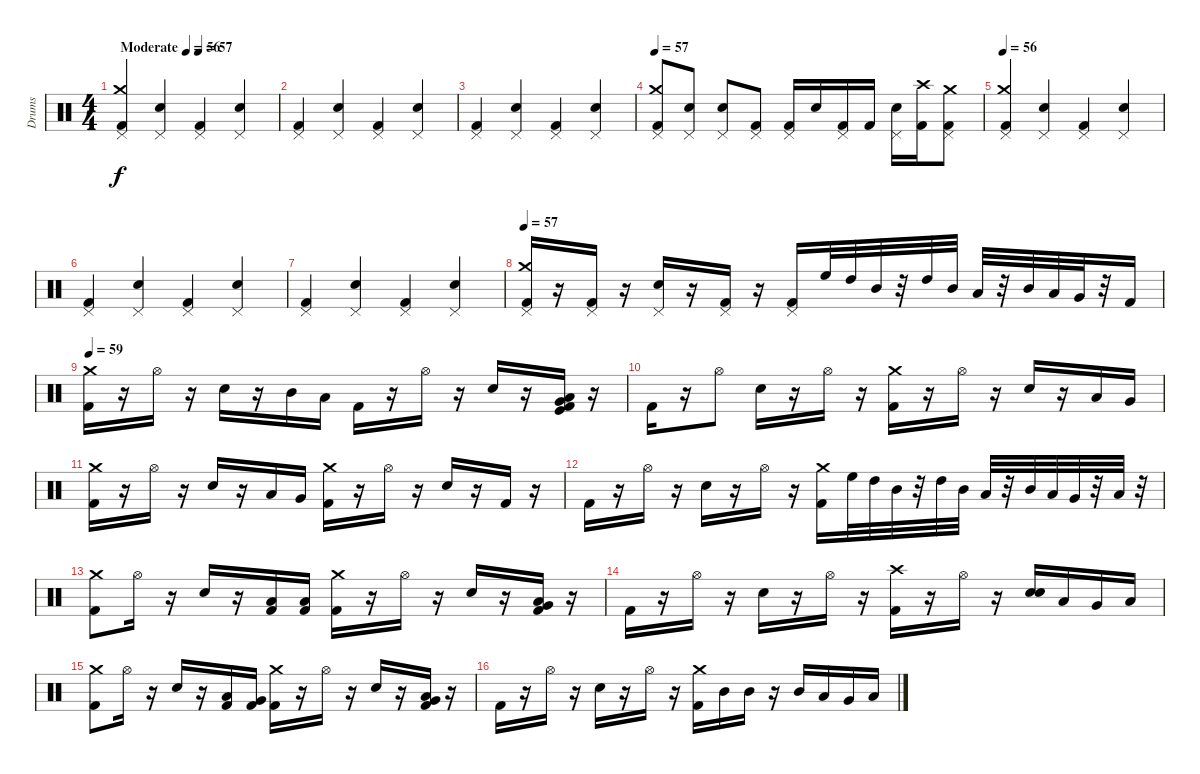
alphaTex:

\track ("Drums" "Drums") {instrument percussion}
\staff {score}
\articulation defaults
\ts (4 4)
\tempo (56 "Moderate")
\tempo (57 0.5)
\tempo (56 "Moderate")
\clef neutral
\ks c
("Pedal Hi-Hat (hit)" "Crash medium (hit)" "Kick (hit) 2").4{dy f} ("Pedal Hi-Hat (hit)" "Snare (hit) 2").4 ("Pedal Hi-Hat (hit)" "Kick (hit) 2").4 ("Pedal Hi-Hat (hit)" "Snare (hit) 2").4 |
("Pedal Hi-Hat (hit)" "Kick (hit) 2").4 ("Pedal Hi-Hat (hit)" "Snare (hit) 2").4 ("Pedal Hi-Hat (hit)" "Kick (hit) 2").4 ("Pedal Hi-Hat (hit)" "Snare (hit) 2").4 |
("Pedal Hi-Hat (hit)" "Kick (hit) 2").4 ("Pedal Hi-Hat (hit)" "Snare (hit) 2").4 ("Pedal Hi-Hat (hit)" "Kick (hit) 2").4 ("Pedal Hi-Hat (hit)" "Snare (hit) 2").4 |
\tempo 57
("Pedal Hi-Hat (hit)" "Crash medium (hit)" "Kick (hit) 2").8 ("Pedal Hi-Hat (hit)" "Snare (hit) 2").8 ("Pedal Hi-Hat (hit)" "Snare (hit) 2").8 ("Pedal Hi-Hat (hit)" "Kick (hit) 2").8 ("Pedal Hi-Hat (hit)" "Kick (hit) 2").16 "Snare (hit) 2".16 ("Pedal Hi-Hat (hit)" "Kick (hit) 2").16 "Kick (hit) 2".16 ("Pedal Hi-Hat (hit)" "Snare (hit) 2").16 ("Crash high (hit)" "Kick (hit) 2").16 ("Crash medium (hit)" "Pedal Hi-Hat (hit)" "Kick (hit) 2").8 |
\tempo 56
("Crash medium (hit)" "Pedal Hi-Hat (hit)" "Kick (hit) 2").4 ("Pedal Hi-Hat (hit)" "Snare (hit) 2").4 ("Pedal Hi-Hat (hit)" "Kick (hit) 2").4 ("Pedal Hi-Hat (hit)" "Snare (hit) 2").4 |
("Pedal Hi-Hat (hit)" "Kick (hit) 2").4 ("Pedal Hi-Hat (hit)" "Snare (hit) 2").4 ("Pedal Hi-Hat (hit)" "Kick (hit) 2").4 ("Pedal Hi-Hat (hit)" "Snare (hit) 2").4 |
("Pedal Hi-Hat (hit)" "Kick (hit) 2").4 ("Pedal Hi-Hat (hit)" "Snare (hit) 2").4 ("Pedal Hi-Hat (hit)" "Kick (hit) 2").4 ("Pedal Hi-Hat (hit)" "Snare (hit) 2").4 |
\tempo 57
("Pedal Hi-Hat (hit)" "Crash medium (hit)" "Kick (hit) 2").16 r.16 ("Pedal Hi-Hat (hit)" "Kick (hit) 2").16 r.16 ("Pedal Hi-Hat (hit)" "Snare (hit) 2").16 r.16 ("Pedal Hi-Hat (hit)" "Kick (hit) 2").16 r.16 ("Pedal Hi-Hat (hit)" "Kick (hit) 2").16 "High Floor Tom (hit)".32 "High Tom (hit)".32 "Mid Tom (hit)".32 r.32 "High Tom (hit)".32 "Mid Tom (hit)".32 "Low Tom (hit)".32 r.32 "Mid Tom (hit)".32 "Low Tom (hit)".32 "Very Low Tom (hit)".32 r.32 "Kick (hit) 2".16 |
\tempo 59
("Kick (hit) 2" "Crash medium (hit)").16 r.16 "Hi-Hat (open)".16 r.16 "Snare (hit) 2".16 r.16 "Mid Tom (hit)".16 "Low Tom (hit)".16 "Kick (hit) 2".16 r.16 "Hi-Hat (open)".16 r.16 "Snare (hit) 2".16 r.16 ("Low Tom (hit)" "Kick (hit)" "Kick (hit) 2" "Very Low Tom (hit)").16 r.16 |
"Kick (hit) 2".16 r.16 "Hi-Hat (open)".8 "Snare (hit) 2".16 r.16 "Hi-Hat (open)".16 r.16 ("Crash medium (hit)" "Kick (hit) 2").16 r.16 "Hi-Hat (open)".16 r.16 "Snare (hit) 2".16 r.16 "Low Tom (hit)".16 "Very Low Tom (hit)".16 |
("Crash medium (hit)" "Kick (hit) 2").16 r.16 "Hi-Hat (open)".16 r.16 "Snare (hit) 2".16 r.16 "Low Tom (hit)".16 "Very Low Tom (hit)".16 ("Crash medium (hit)" "Kick (hit) 2").16 r.16 "Hi-Hat (open)".16 r.16 "Snare (hit) 2".16 r.16 "Kick (hit) 2".16 r.16 |
"Kick (hit) 2".16 r.16 "Hi-Hat (open)".16 r.16 "Snare (hit) 2".16 r.16 "Hi-Hat (open)".16 r.16 ("Kick (hit) 2" "Crash medium (hit)").16 "High Floor Tom (hit)".32 "High Tom (hit)".32 "Mid Tom (hit)".32 r.32 "High Tom (hit)".32 "Mid Tom (hit)".32 "Low Tom (hit)".32 r.32 "Mid Tom (hit)".32 "Low Tom (hit)".32 "Very Low Tom (hit)".32 r.32 "Low Floor Tom (hit)".32 r.32 |
("Crash medium (hit)" "Kick (hit) 2").8 "Hi-Hat (open)".16 r.16 "Snare (hit) 2".16 r.16 ("Low Tom (hit)" "Kick (hit) 2").16 ("Low Tom (hit)" "Kick (hit) 2").16 ("Kick (hit) 2" "Crash medium (hit)").16 r.16 "Hi-Hat (open)".16 r.16 "Snare (hit) 2".16 r.16 ("Kick (hit) 2" "Very Low Tom (hit)" "Low Tom (hit)").16 r.16 |
"Kick (hit) 2".16 r.16 "Hi-Hat (open)".16 r.16 "Snare (hit) 2".16 r.16 "Hi-Hat (open)".16 r.16 ("Crash high (hit)" "Kick (hit) 2").16 r.16 "Hi-Hat (open)".16 r.16 ("Electric Snare (hit)" "Snare (hit) 2").16 "Low Tom (hit)".16 "Very Low Tom (hit)".16 "Low Floor Tom (hit)".16 |
("Crash medium (hit)" "Kick (hit) 2").8 "Hi-Hat (open)".16 r.16 "Snare (hit) 2".16 r.16 ("Low Tom (hit)" "Kick (hit) 2").16 ("Very Low Tom (hit)" "Kick (hit) 2").16 ("Kick (hit) 2" "Crash medium (hit)").16 r.16 "Hi-Hat (open)".16 r.16 "Snare (hit) 2".16 r.16 ("Kick (hit) 2" "Very Low Tom (hit)" "Low Tom (hit)").16 r.16 |
"Kick (hit) 2".16 r.16 "Hi-Hat (open)".16 r.16 "Snare (hit) 2".16 r.16 "Hi-Hat (open)".16 r.16 ("Kick (hit) 2" "Crash medium (hit)").16 "Mid Tom (hit)".16 "Mid Tom (hit)".16 r.16 "Mid Tom (hit)".16 "Low Tom (hit)".16 "Very Low Tom (hit)".16 "Low Floor Tom (hit)".16
